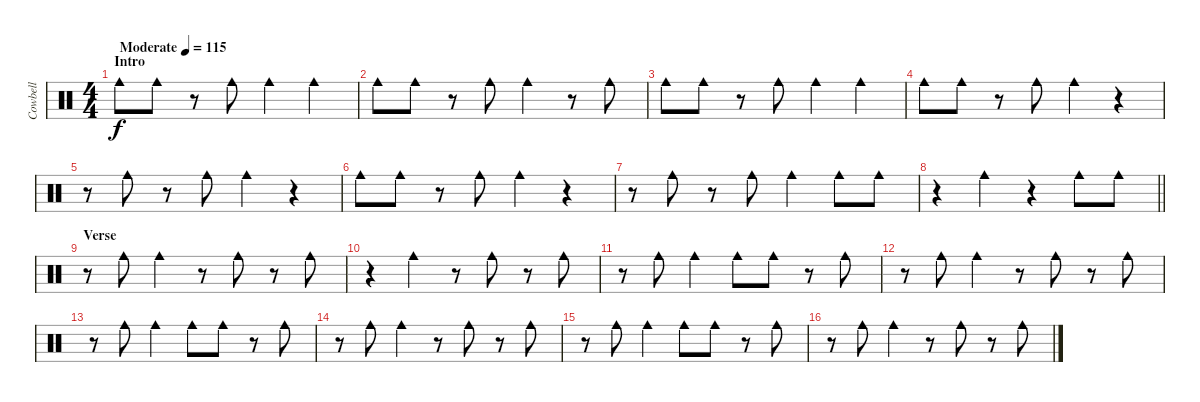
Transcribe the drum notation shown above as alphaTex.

\track ("Cowbell" "Cowbell") {instrument percussion}
\staff {score}
\articulation defaults
\ts (4 4)
\section ("" "Intro")
\tempo (115 "Moderate")
\clef neutral
\ks c "Cowbell medium (hit)".8{dy f} "Cowbell medium (hit)".8
r.8 "Cowbell medium (hit)".8 "Cowbell medium (hit)".4 "Cowbell medium (hit)".4 |
"Cowbell medium (hit)".8 "Cowbell medium (hit)".8 r.8 "Cowbell medium (hit)".8 "Cowbell medium (hit)".4 r.8 "Cowbell medium (hit)".8 |
"Cowbell medium (hit)".8 "Cowbell medium (hit)".8 r.8 "Cowbell medium (hit)".8 "Cowbell medium (hit)".4 "Cowbell medium (hit)".4 |
"Cowbell medium (hit)".8 "Cowbell medium (hit)".8 r.8 "Cowbell medium (hit)".8 "Cowbell medium (hit)".4 r.4 |
r.8 "Cowbell medium (hit)".8 r.8 "Cowbell medium (hit)".8 "Cowbell medium (hit)".4 r.4 |
"Cowbell medium (hit)".8 "Cowbell medium (hit)".8 r.8 "Cowbell medium (hit)".8 "Cowbell medium (hit)".4 r.4 |
r.8 "Cowbell medium (hit)".8 r.8 "Cowbell medium (hit)".8 "Cowbell medium (hit)".4 "Cowbell medium (hit)".8 "Cowbell medium (hit)".8 |
\barLineRight lightlight
r.4 "Cowbell medium (hit)".4 r.4 "Cowbell medium (hit)".8 "Cowbell medium (hit)".8 |
\section ("" "Verse")
r.8 "Cowbell medium (hit)".8 "Cowbell medium (hit)".4 r.8 "Cowbell medium (hit)".8 r.8 "Cowbell medium (hit)".8 |
r.4 "Cowbell medium (hit)".4 r.8 "Cowbell medium (hit)".8 r.8 "Cowbell medium (hit)".8 |
r.8 "Cowbell medium (hit)".8 "Cowbell medium (hit)".4 "Cowbell medium (hit)".8 "Cowbell medium (hit)".8 r.8 "Cowbell medium (hit)".8 |
r.8 "Cowbell medium (hit)".8 "Cowbell medium (hit)".4 r.8 "Cowbell medium (hit)".8 r.8 "Cowbell medium (hit)".8 |
r.8 "Cowbell medium (hit)".8 "Cowbell medium (hit)".4 "Cowbell medium (hit)".8 "Cowbell medium (hit)".8 r.8 "Cowbell medium (hit)".8 |
r.8 "Cowbell medium (hit)".8 "Cowbell medium (hit)".4 r.8 "Cowbell medium (hit)".8 r.8 "Cowbell medium (hit)".8 |
r.8 "Cowbell medium (hit)".8 "Cowbell medium (hit)".4 "Cowbell medium (hit)".8 "Cowbell medium (hit)".8 r.8 "Cowbell medium (hit)".8 |
r.8 "Cowbell medium (hit)".8 "Cowbell medium (hit)".4 r.8 "Cowbell medium (hit)".8 r.8 "Cowbell medium (hit)".8
